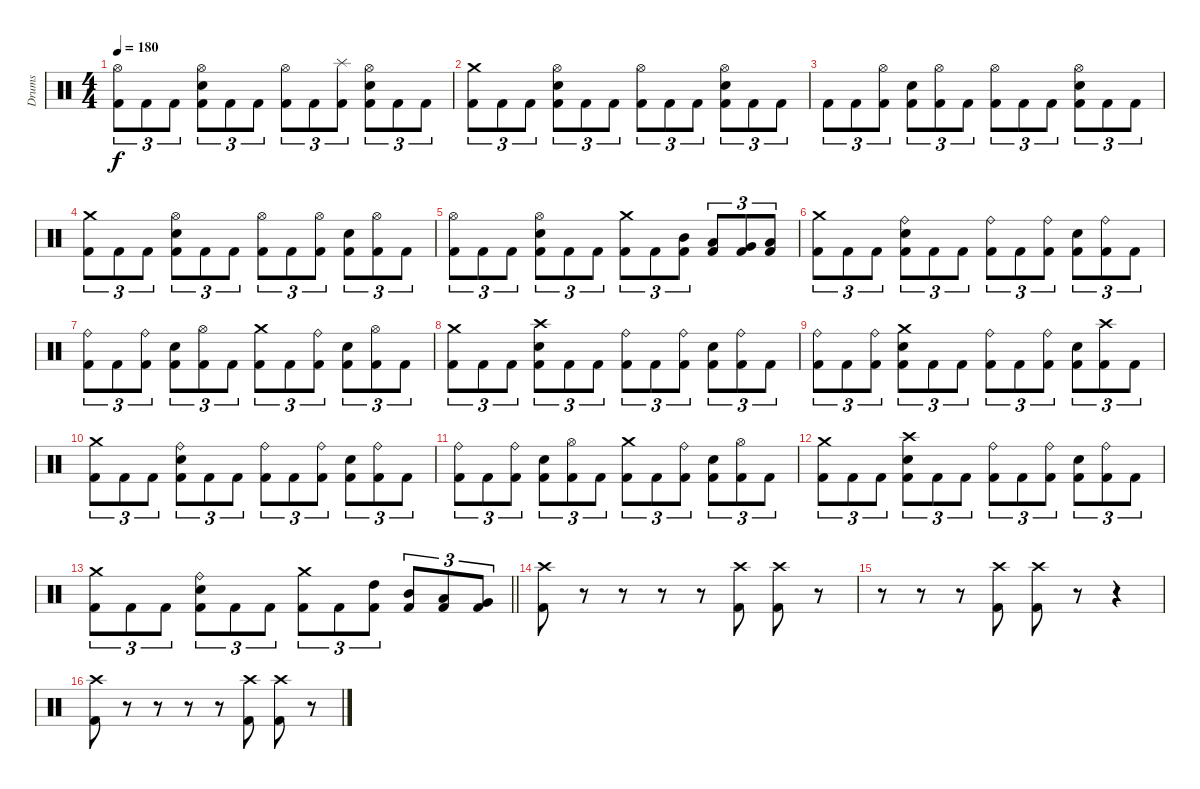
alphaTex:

\track ("Drums" "Drums") {instrument percussion}
\staff {score}
\articulation defaults
\ts (4 4)
\tempo 180
\clef neutral
\ks c
("Hi-Hat (open)" "Kick (hit) 2").8{tu (3 2) dy f} "Kick (hit) 2".8{tu (3 2)} "Kick (hit) 2".8{tu (3 2)} ("Hi-Hat (open)" "Electric Snare (hit)" "Kick (hit) 2").8{tu (3 2)} "Kick (hit) 2".8{tu (3 2)} "Kick (hit) 2".8{tu (3 2)} ("Hi-Hat (open)" "Kick (hit) 2").8{tu (3 2)} "Kick (hit) 2".8{tu (3 2)} ("Splash (hit)" "Kick (hit) 2").8{tu (3 2)} ("Hi-Hat (open)" "Electric Snare (hit)" "Kick (hit) 2").8{tu (3 2)} "Kick (hit) 2".8{tu (3 2)} "Kick (hit) 2".8{tu (3 2)} |
("Crash medium (hit)" "Kick (hit) 2").8{tu (3 2)} "Kick (hit) 2".8{tu (3 2)} "Kick (hit) 2".8{tu (3 2)} ("Hi-Hat (open)" "Electric Snare (hit)" "Kick (hit) 2").8{tu (3 2)} "Kick (hit) 2".8{tu (3 2)} "Kick (hit) 2".8{tu (3 2)} ("Hi-Hat (open)" "Kick (hit) 2").8{tu (3 2)} "Kick (hit) 2".8{tu (3 2)} "Kick (hit) 2".8{tu (3 2)} ("Hi-Hat (open)" "Electric Snare (hit)" "Kick (hit) 2").8{tu (3 2)} "Kick (hit) 2".8{tu (3 2)} "Kick (hit) 2".8{tu (3 2)} |
"Kick (hit) 2".8{tu (3 2)} "Kick (hit) 2".8{tu (3 2)} ("Hi-Hat (open)" "Kick (hit) 2").8{tu (3 2)} ("Electric Snare (hit)" "Kick (hit) 2").8{tu (3 2)} ("Hi-Hat (open)" "Kick (hit) 2").8{tu (3 2)} "Kick (hit) 2".8{tu (3 2)} ("Hi-Hat (open)" "Kick (hit) 2").8{tu (3 2)} "Kick (hit) 2".8{tu (3 2)} "Kick (hit) 2".8{tu (3 2)} ("Hi-Hat (open)" "Electric Snare (hit)" "Kick (hit) 2").8{tu (3 2)} "Kick (hit) 2".8{tu (3 2)} "Kick (hit) 2".8{tu (3 2)} |
("Crash medium (hit)" "Kick (hit) 2").8{tu (3 2)} "Kick (hit) 2".8{tu (3 2)} "Kick (hit) 2".8{tu (3 2)} ("Hi-Hat (open)" "Electric Snare (hit)" "Kick (hit) 2").8{tu (3 2)} "Kick (hit) 2".8{tu (3 2)} "Kick (hit) 2".8{tu (3 2)} ("Hi-Hat (open)" "Kick (hit) 2").8{tu (3 2)} "Kick (hit) 2".8{tu (3 2)} ("Hi-Hat (open)" "Kick (hit) 2").8{tu (3 2)} ("Electric Snare (hit)" "Kick (hit) 2").8{tu (3 2)} ("Hi-Hat (open)" "Kick (hit) 2").8{tu (3 2)} "Kick (hit) 2".8{tu (3 2)} |
("Hi-Hat (open)" "Kick (hit) 2").8{tu (3 2)} "Kick (hit) 2".8{tu (3 2)} "Kick (hit) 2".8{tu (3 2)} ("Hi-Hat (open)" "Electric Snare (hit)" "Kick (hit) 2").8{tu (3 2)} "Kick (hit) 2".8{tu (3 2)} "Kick (hit) 2".8{tu (3 2)} ("Crash medium (hit)" "Kick (hit) 2").8{tu (3 2)} "Kick (hit) 2".8{tu (3 2)} ("Mid Tom (hit)" "Kick (hit) 2").8{tu (3 2)} ("Low Tom (hit)" "Kick (hit) 2").8{tu (3 2)} ("Very Low Tom (hit)" "Kick (hit) 2").8{tu (3 2)} ("Low Floor Tom (hit)" "Kick (hit) 2").8{tu (3 2)} |
("Crash medium (hit)" "Kick (hit) 2").8{tu (3 2)} "Kick (hit) 2".8{tu (3 2)} "Kick (hit) 2".8{tu (3 2)} ("Ride (bell)" "Electric Snare (hit)" "Kick (hit) 2").8{tu (3 2)} "Kick (hit) 2".8{tu (3 2)} "Kick (hit) 2".8{tu (3 2)} ("Ride (bell)" "Kick (hit) 2").8{tu (3 2)} "Kick (hit) 2".8{tu (3 2)} ("Ride (bell)" "Kick (hit) 2").8{tu (3 2)} ("Electric Snare (hit)" "Kick (hit) 2").8{tu (3 2)} ("Ride (bell)" "Kick (hit) 2").8{tu (3 2)} "Kick (hit) 2".8{tu (3 2)} |
("Ride (bell)" "Kick (hit) 2").8{tu (3 2)} "Kick (hit) 2".8{tu (3 2)} ("Ride (bell)" "Kick (hit) 2").8{tu (3 2)} ("Electric Snare (hit)" "Kick (hit) 2").8{tu (3 2)} ("Hi-Hat (open)" "Kick (hit) 2").8{tu (3 2)} "Kick (hit) 2".8{tu (3 2)} ("Crash medium (hit)" "Kick (hit) 2").8{tu (3 2)} "Kick (hit) 2".8{tu (3 2)} ("Ride (bell)" "Kick (hit) 2").8{tu (3 2)} ("Electric Snare (hit)" "Kick (hit) 2").8{tu (3 2)} ("Hi-Hat (open)" "Kick (hit) 2").8{tu (3 2)} "Kick (hit) 2".8{tu (3 2)} |
("Crash medium (hit)" "Kick (hit) 2").8{tu (3 2)} "Kick (hit) 2".8{tu (3 2)} "Kick (hit) 2".8{tu (3 2)} ("Crash high (hit)" "Electric Snare (hit)" "Kick (hit) 2").8{tu (3 2)} "Kick (hit) 2".8{tu (3 2)} "Kick (hit) 2".8{tu (3 2)} ("Ride (bell)" "Kick (hit) 2").8{tu (3 2)} "Kick (hit) 2".8{tu (3 2)} ("Ride (bell)" "Kick (hit) 2").8{tu (3 2)} ("Electric Snare (hit)" "Kick (hit) 2").8{tu (3 2)} ("Ride (bell)" "Kick (hit) 2").8{tu (3 2)} "Kick (hit) 2".8{tu (3 2)} |
("Ride (bell)" "Kick (hit) 2").8{tu (3 2)} "Kick (hit) 2".8{tu (3 2)} ("Ride (bell)" "Kick (hit) 2").8{tu (3 2)} ("Crash medium (hit)" "Electric Snare (hit)" "Kick (hit) 2").8{tu (3 2)} "Kick (hit) 2".8{tu (3 2)} "Kick (hit) 2".8{tu (3 2)} ("Ride (bell)" "Kick (hit) 2").8{tu (3 2)} "Kick (hit) 2".8{tu (3 2)} ("Ride (bell)" "Kick (hit) 2").8{tu (3 2)} ("Electric Snare (hit)" "Kick (hit) 2").8{tu (3 2)} ("Crash high (hit)" "Kick (hit) 2").8{tu (3 2)} "Kick (hit) 2".8{tu (3 2)} |
("Crash medium (hit)" "Kick (hit) 2").8{tu (3 2)} "Kick (hit) 2".8{tu (3 2)} "Kick (hit) 2".8{tu (3 2)} ("Ride (bell)" "Electric Snare (hit)" "Kick (hit) 2").8{tu (3 2)} "Kick (hit) 2".8{tu (3 2)} "Kick (hit) 2".8{tu (3 2)} ("Ride (bell)" "Kick (hit) 2").8{tu (3 2)} "Kick (hit) 2".8{tu (3 2)} ("Ride (bell)" "Kick (hit) 2").8{tu (3 2)} ("Electric Snare (hit)" "Kick (hit) 2").8{tu (3 2)} ("Ride (bell)" "Kick (hit) 2").8{tu (3 2)} "Kick (hit) 2".8{tu (3 2)} |
("Ride (bell)" "Kick (hit) 2").8{tu (3 2)} "Kick (hit) 2".8{tu (3 2)} ("Ride (bell)" "Kick (hit) 2").8{tu (3 2)} ("Electric Snare (hit)" "Kick (hit) 2").8{tu (3 2)} ("Hi-Hat (open)" "Kick (hit) 2").8{tu (3 2)} "Kick (hit) 2".8{tu (3 2)} ("Crash medium (hit)" "Kick (hit) 2").8{tu (3 2)} "Kick (hit) 2".8{tu (3 2)} ("Ride (bell)" "Kick (hit) 2").8{tu (3 2)} ("Electric Snare (hit)" "Kick (hit) 2").8{tu (3 2)} ("Hi-Hat (open)" "Kick (hit) 2").8{tu (3 2)} "Kick (hit) 2".8{tu (3 2)} |
("Crash medium (hit)" "Kick (hit) 2").8{tu (3 2)} "Kick (hit) 2".8{tu (3 2)} "Kick (hit) 2".8{tu (3 2)} ("Crash high (hit)" "Electric Snare (hit)" "Kick (hit) 2").8{tu (3 2)} "Kick (hit) 2".8{tu (3 2)} "Kick (hit) 2".8{tu (3 2)} ("Ride (bell)" "Kick (hit) 2").8{tu (3 2)} "Kick (hit) 2".8{tu (3 2)} ("Ride (bell)" "Kick (hit) 2").8{tu (3 2)} ("Electric Snare (hit)" "Kick (hit) 2").8{tu (3 2)} ("Ride (bell)" "Kick (hit) 2").8{tu (3 2)} "Kick (hit) 2".8{tu (3 2)} |
\barLineRight lightlight
("Crash medium (hit)" "Kick (hit) 2").8{tu (3 2)} "Kick (hit) 2".8{tu (3 2)} "Kick (hit) 2".8{tu (3 2)} ("Ride (bell)" "Electric Snare (hit)" "Kick (hit) 2").8{tu (3 2)} "Kick (hit) 2".8{tu (3 2)} "Kick (hit) 2".8{tu (3 2)} ("Crash medium (hit)" "Kick (hit) 2").8{tu (3 2)} "Kick (hit) 2".8{tu (3 2)} ("High Tom (hit)" "Kick (hit) 2").8{tu (3 2)} ("Mid Tom (hit)" "Kick (hit) 2").8{tu (3 2)} ("Low Tom (hit)" "Kick (hit) 2").8{tu (3 2)} ("Very Low Tom (hit)" "Kick (hit) 2").8{tu (3 2)} |
\section ("" "")
("Crash high (hit)" "Kick (hit) 2").8 r.8 r.8 r.8 r.8 ("Crash high (hit)" "Kick (hit) 2").8 ("Crash high (hit)" "Kick (hit) 2").8 r.8 |
r.8 r.8 r.8 ("Crash high (hit)" "Kick (hit) 2").8 ("Crash high (hit)" "Kick (hit) 2").8 r.8 r.4 |
("Crash high (hit)" "Kick (hit) 2").8 r.8 r.8 r.8 r.8 ("Crash high (hit)" "Kick (hit) 2").8 ("Crash high (hit)" "Kick (hit) 2").8 r.8
